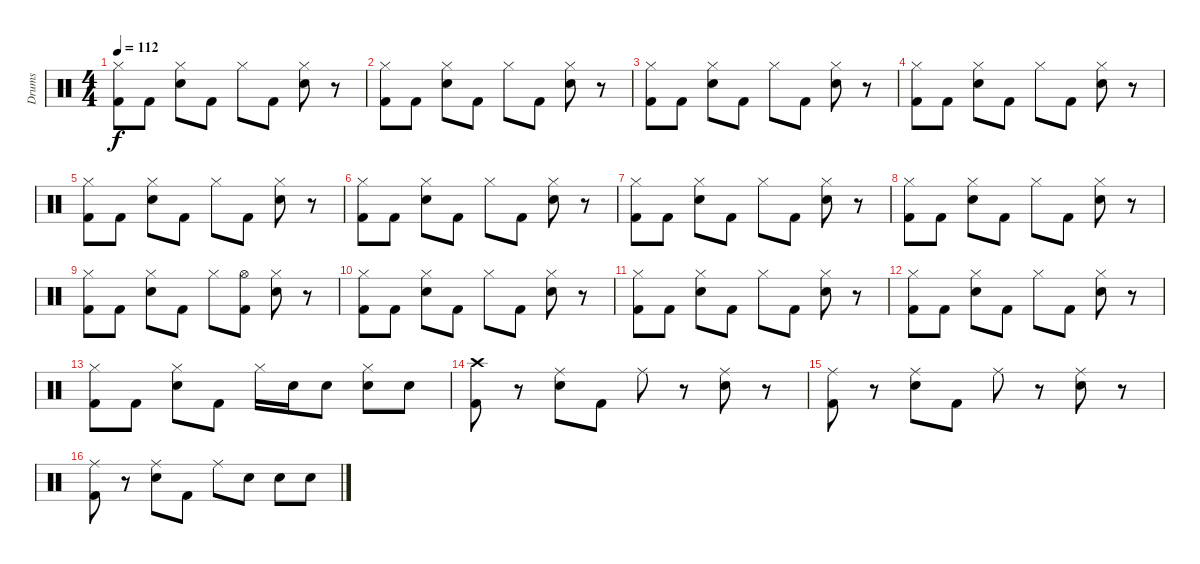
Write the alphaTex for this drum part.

\track ("Drums" "Drums") {instrument percussion}
\staff {score}
\articulation defaults
\ts (4 4)
\tempo 112
\clef neutral
\ks c
("Hi-Hat (closed)" "Kick (hit) 2").8{dy f} "Kick (hit) 2".8 ("Hi-Hat (closed)" "Snare (hit) 2").8 "Kick (hit) 2".8 "Hi-Hat (closed)".8 "Kick (hit) 2".8 ("Snare (hit) 2" "Hi-Hat (closed)").8 r.8 |
("Hi-Hat (closed)" "Kick (hit) 2").8 "Kick (hit) 2".8 ("Hi-Hat (closed)" "Snare (hit) 2").8 "Kick (hit) 2".8 "Hi-Hat (closed)".8 "Kick (hit) 2".8 ("Snare (hit) 2" "Hi-Hat (closed)").8 r.8 |
("Hi-Hat (closed)" "Kick (hit) 2").8 "Kick (hit) 2".8 ("Hi-Hat (closed)" "Snare (hit) 2").8 "Kick (hit) 2".8 "Hi-Hat (closed)".8 "Kick (hit) 2".8 ("Snare (hit) 2" "Hi-Hat (closed)").8 r.8 |
("Hi-Hat (closed)" "Kick (hit) 2").8 "Kick (hit) 2".8 ("Hi-Hat (closed)" "Snare (hit) 2").8 "Kick (hit) 2".8 "Hi-Hat (closed)".8 "Kick (hit) 2".8 ("Snare (hit) 2" "Hi-Hat (closed)").8 r.8 |
("Hi-Hat (closed)" "Kick (hit) 2").8 "Kick (hit) 2".8 ("Hi-Hat (closed)" "Snare (hit) 2").8 "Kick (hit) 2".8 "Hi-Hat (closed)".8 "Kick (hit) 2".8 ("Snare (hit) 2" "Hi-Hat (closed)").8 r.8 |
("Hi-Hat (closed)" "Kick (hit) 2").8 "Kick (hit) 2".8 ("Hi-Hat (closed)" "Snare (hit) 2").8 "Kick (hit) 2".8 "Hi-Hat (closed)".8 "Kick (hit) 2".8 ("Snare (hit) 2" "Hi-Hat (closed)").8 r.8 |
("Hi-Hat (closed)" "Kick (hit) 2").8 "Kick (hit) 2".8 ("Hi-Hat (closed)" "Snare (hit) 2").8 "Kick (hit) 2".8 "Hi-Hat (closed)".8 "Kick (hit) 2".8 ("Snare (hit) 2" "Hi-Hat (closed)").8 r.8 |
("Hi-Hat (closed)" "Kick (hit) 2").8 "Kick (hit) 2".8 ("Hi-Hat (closed)" "Snare (hit) 2").8 "Kick (hit) 2".8 "Hi-Hat (closed)".8 "Kick (hit) 2".8 ("Snare (hit) 2" "Hi-Hat (closed)").8 r.8 |
("Hi-Hat (closed)" "Kick (hit) 2").8 "Kick (hit) 2".8 ("Hi-Hat (closed)" "Snare (hit) 2").8 "Kick (hit) 2".8 "Hi-Hat (closed)".8 ("Hi-Hat (open)" "Kick (hit) 2").8 ("Snare (hit) 2" "Hi-Hat (closed)").8 r.8 |
("Hi-Hat (closed)" "Kick (hit) 2").8 "Kick (hit) 2".8 ("Hi-Hat (closed)" "Snare (hit) 2").8 "Kick (hit) 2".8 "Hi-Hat (closed)".8 "Kick (hit) 2".8 ("Snare (hit) 2" "Hi-Hat (closed)").8 r.8 |
("Hi-Hat (closed)" "Kick (hit) 2").8 "Kick (hit) 2".8 ("Hi-Hat (closed)" "Snare (hit) 2").8 "Kick (hit) 2".8 "Hi-Hat (closed)".8 "Kick (hit) 2".8 ("Snare (hit) 2" "Hi-Hat (closed)").8 r.8 |
("Hi-Hat (closed)" "Kick (hit) 2").8 "Kick (hit) 2".8 ("Hi-Hat (closed)" "Snare (hit) 2").8 "Kick (hit) 2".8 "Hi-Hat (closed)".8 "Kick (hit) 2".8 ("Snare (hit) 2" "Hi-Hat (closed)").8 r.8 |
("Hi-Hat (closed)" "Kick (hit) 2").8 "Kick (hit) 2".8 ("Hi-Hat (closed)" "Snare (hit) 2").8 "Kick (hit) 2".8 "Hi-Hat (closed)".16 "Snare (hit) 2".16 "Snare (hit) 2".8 ("Snare (hit) 2" "Hi-Hat (closed)").8 "Snare (hit) 2".8 |
("Crash high (hit)" "Kick (hit) 2").8 r.8 ("Ride (middle)" "Snare (hit) 2").8 "Kick (hit) 2".8 "Ride (middle)".8 r.8 ("Snare (hit) 2" "Ride (middle)").8 r.8 |
("Ride (middle)" "Kick (hit) 2").8 r.8 ("Ride (middle)" "Snare (hit) 2").8 "Kick (hit) 2".8 "Ride (middle)".8 r.8 ("Snare (hit) 2" "Ride (middle)").8 r.8 |
("Ride (middle)" "Kick (hit) 2").8 r.8 ("Ride (middle)" "Snare (hit) 2").8 "Kick (hit) 2".8 "Ride (middle)".8 "Snare (hit) 2".8 "Snare (hit) 2".8 "Snare (hit) 2".8
